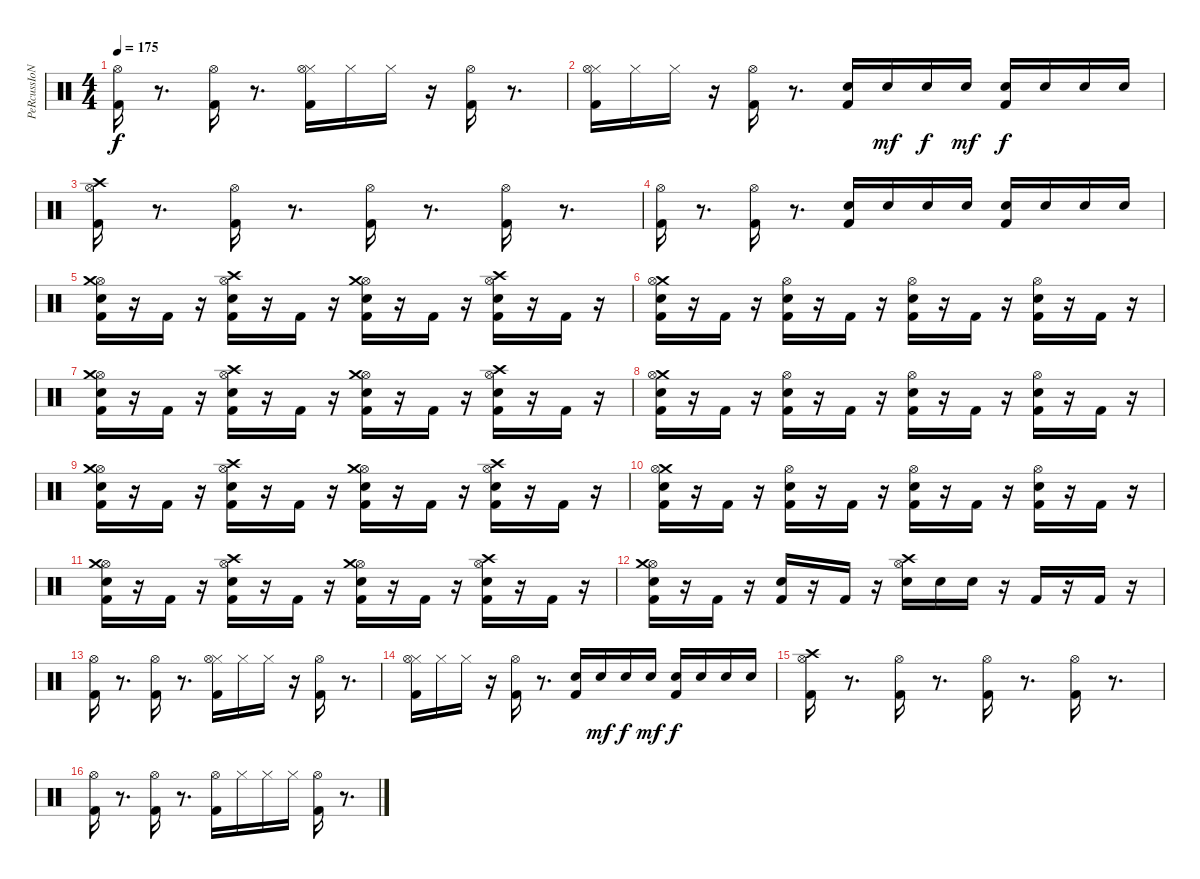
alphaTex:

\track ("PeRcussIoNs" "PeRcussIoN") {instrument percussion}
\staff {score}
\articulation defaults
\ts (4 4)
\tempo 175
\clef neutral
\ks c
("Hi-Hat (open)" "Kick (hit) 2").16{dy f} r.8{d} ("Hi-Hat (open)" "Kick (hit) 2").16 r.8{d} ("Hi-Hat (closed)" "Hi-Hat (open)" "Kick (hit) 2").16 "Hi-Hat (closed)".16 "Hi-Hat (closed)".16 r.16 ("Hi-Hat (open)" "Kick (hit) 2").16 r.8{d} |
("Hi-Hat (closed)" "Kick (hit) 2" "Hi-Hat (open)").16 "Hi-Hat (closed)".16 "Hi-Hat (closed)".16 r.16 ("Kick (hit) 2" "Hi-Hat (open)").16 r.8{d} ("Kick (hit) 2" "Electric Snare (hit)").16 "Electric Snare (hit)".16{dy mf} "Electric Snare (hit)".16{dy f} "Electric Snare (hit)".16{dy mf} ("Kick (hit) 2" "Electric Snare (hit)").16{dy f} "Electric Snare (hit)".16 "Electric Snare (hit)".16 "Electric Snare (hit)".16 |
("Hi-Hat (open)" "Kick (hit) 2" "Crash high (hit)").16 r.8{d} ("Kick (hit) 2" "Hi-Hat (open)").16 r.8{d} ("Kick (hit) 2" "Hi-Hat (open)").16 r.8{d} ("Kick (hit) 2" "Hi-Hat (open)").16 r.8{d} |
("Kick (hit) 2" "Hi-Hat (open)").16 r.8{d} ("Kick (hit) 2" "Hi-Hat (open)").16 r.8{d} ("Electric Snare (hit)" "Kick (hit) 2").16 "Electric Snare (hit)".16 "Electric Snare (hit)".16 "Electric Snare (hit)".16 ("Electric Snare (hit)" "Kick (hit) 2").16 "Electric Snare (hit)".16 "Electric Snare (hit)".16 "Electric Snare (hit)".16 |
("Hi-Hat (open)" "Electric Snare (hit)" "Kick (hit) 2" "Crash medium (hit)").16 r.16 "Kick (hit) 2".16 r.16 ("Hi-Hat (open)" "Electric Snare (hit)" "Kick (hit) 2" "Crash high (hit)").16 r.16 "Kick (hit) 2".16 r.16 ("Hi-Hat (open)" "Electric Snare (hit)" "Kick (hit) 2" "Crash medium (hit)").16 r.16 "Kick (hit) 2".16 r.16 ("Hi-Hat (open)" "Electric Snare (hit)" "Kick (hit) 2" "Crash high (hit)").16 r.16 "Kick (hit) 2".16 r.16 |
("Crash medium (hit)" "Hi-Hat (open)" "Electric Snare (hit)" "Kick (hit) 2").16 r.16 "Kick (hit) 2".16 r.16 ("Hi-Hat (open)" "Electric Snare (hit)" "Kick (hit) 2").16 r.16 "Kick (hit) 2".16 r.16 ("Hi-Hat (open)" "Electric Snare (hit)" "Kick (hit) 2").16 r.16 "Kick (hit) 2".16 r.16 ("Hi-Hat (open)" "Electric Snare (hit)" "Kick (hit) 2").16 r.16 "Kick (hit) 2".16 r.16 |
("Hi-Hat (open)" "Electric Snare (hit)" "Kick (hit) 2" "Crash medium (hit)").16 r.16 "Kick (hit) 2".16 r.16 ("Hi-Hat (open)" "Electric Snare (hit)" "Kick (hit) 2" "Crash high (hit)").16 r.16 "Kick (hit) 2".16 r.16 ("Hi-Hat (open)" "Electric Snare (hit)" "Kick (hit) 2" "Crash medium (hit)").16 r.16 "Kick (hit) 2".16 r.16 ("Hi-Hat (open)" "Electric Snare (hit)" "Kick (hit) 2" "Crash high (hit)").16 r.16 "Kick (hit) 2".16 r.16 |
("Crash medium (hit)" "Hi-Hat (open)" "Electric Snare (hit)" "Kick (hit) 2").16 r.16 "Kick (hit) 2".16 r.16 ("Hi-Hat (open)" "Electric Snare (hit)" "Kick (hit) 2").16 r.16 "Kick (hit) 2".16 r.16 ("Hi-Hat (open)" "Electric Snare (hit)" "Kick (hit) 2").16 r.16 "Kick (hit) 2".16 r.16 ("Hi-Hat (open)" "Electric Snare (hit)" "Kick (hit) 2").16 r.16 "Kick (hit) 2".16 r.16 |
("Hi-Hat (open)" "Electric Snare (hit)" "Kick (hit) 2" "Crash medium (hit)").16 r.16 "Kick (hit) 2".16 r.16 ("Hi-Hat (open)" "Electric Snare (hit)" "Kick (hit) 2" "Crash high (hit)").16 r.16 "Kick (hit) 2".16 r.16 ("Hi-Hat (open)" "Electric Snare (hit)" "Kick (hit) 2" "Crash medium (hit)").16 r.16 "Kick (hit) 2".16 r.16 ("Hi-Hat (open)" "Electric Snare (hit)" "Kick (hit) 2" "Crash high (hit)").16 r.16 "Kick (hit) 2".16 r.16 |
("Crash medium (hit)" "Hi-Hat (open)" "Electric Snare (hit)" "Kick (hit) 2").16 r.16 "Kick (hit) 2".16 r.16 ("Hi-Hat (open)" "Electric Snare (hit)" "Kick (hit) 2").16 r.16 "Kick (hit) 2".16 r.16 ("Hi-Hat (open)" "Electric Snare (hit)" "Kick (hit) 2").16 r.16 "Kick (hit) 2".16 r.16 ("Hi-Hat (open)" "Electric Snare (hit)" "Kick (hit) 2").16 r.16 "Kick (hit) 2".16 r.16 |
("Hi-Hat (open)" "Electric Snare (hit)" "Kick (hit) 2" "Crash medium (hit)").16 r.16 "Kick (hit) 2".16 r.16 ("Hi-Hat (open)" "Electric Snare (hit)" "Kick (hit) 2" "Crash high (hit)").16 r.16 "Kick (hit) 2".16 r.16 ("Hi-Hat (open)" "Electric Snare (hit)" "Kick (hit) 2" "Crash medium (hit)").16 r.16 "Kick (hit) 2".16 r.16 ("Hi-Hat (open)" "Electric Snare (hit)" "Kick (hit) 2" "Crash high (hit)").16 r.16 "Kick (hit) 2".16 r.16 |
("Hi-Hat (open)" "Crash medium (hit)" "Electric Snare (hit)" "Kick (hit) 2").16 r.16 "Kick (hit) 2".16 r.16 ("Electric Snare (hit)" "Kick (hit) 2").16 r.16 "Kick (hit) 2".16 r.16 ("Crash high (hit)" "Hi-Hat (open)" "Electric Snare (hit)").16 "Electric Snare (hit)".16 "Electric Snare (hit)".16 r.16 "Kick (hit) 2".16 r.16 "Kick (hit) 2".16 r.16 |
("Kick (hit) 2" "Hi-Hat (open)").16 r.8{d} ("Kick (hit) 2" "Hi-Hat (open)").16 r.8{d} ("Hi-Hat (closed)" "Kick (hit) 2" "Hi-Hat (open)").16 "Hi-Hat (closed)".16 "Hi-Hat (closed)".16 r.16 ("Kick (hit) 2" "Hi-Hat (open)").16 r.8{d} |
("Hi-Hat (closed)" "Kick (hit) 2" "Hi-Hat (open)").16 "Hi-Hat (closed)".16 "Hi-Hat (closed)".16 r.16 ("Kick (hit) 2" "Hi-Hat (open)").16 r.8{d} ("Kick (hit) 2" "Electric Snare (hit)").16 "Electric Snare (hit)".16{dy mf} "Electric Snare (hit)".16{dy f} "Electric Snare (hit)".16{dy mf} ("Kick (hit) 2" "Electric Snare (hit)").16{dy f} "Electric Snare (hit)".16 "Electric Snare (hit)".16 "Electric Snare (hit)".16 |
("Hi-Hat (open)" "Kick (hit) 2" "Crash high (hit)").16 r.8{d} ("Kick (hit) 2" "Hi-Hat (open)").16 r.8{d} ("Kick (hit) 2" "Hi-Hat (open)").16 r.8{d} ("Kick (hit) 2" "Hi-Hat (open)").16 r.8{d} |
("Kick (hit) 2" "Hi-Hat (open)").16 r.8{d} ("Kick (hit) 2" "Hi-Hat (open)").16 r.8{d} ("Hi-Hat (open)" "Kick (hit) 2").16 "Hi-Hat (closed)".16 "Hi-Hat (closed)".16 "Hi-Hat (closed)".16 ("Hi-Hat (open)" "Kick (hit) 2").16 r.8{d}
